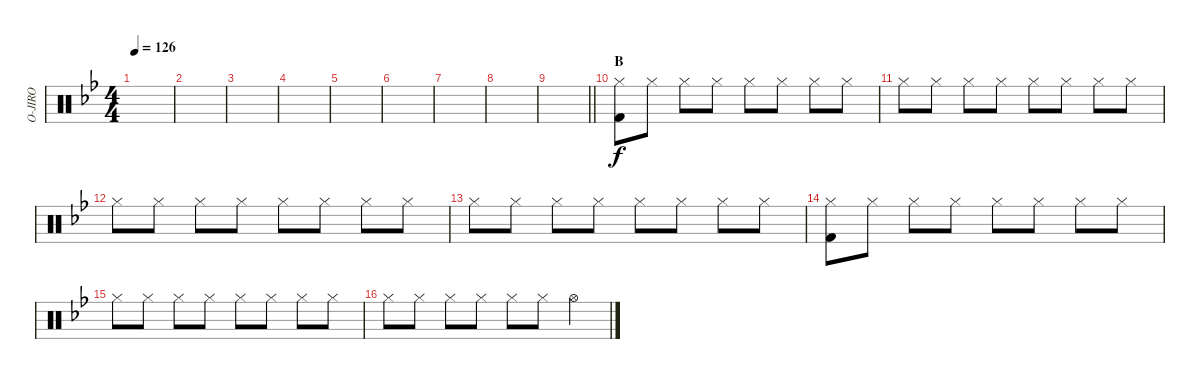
\track ("O-JIRO" "O-JIRO") {instrument percussion}
\staff {score}
\articulation defaults
\ts (4 4)
\tempo 126
\clef neutral
\ks bb
|
|
|
|
|
|
|
|
\barLineRight lightlight
|
\section ("" "B ")
("Hi-Hat (closed)" "Kick (hit) 2").8 "Hi-Hat (closed)".8 "Hi-Hat (closed)".8 "Hi-Hat (closed)".8 "Hi-Hat (closed)".8 "Hi-Hat (closed)".8 "Hi-Hat (closed)".8 "Hi-Hat (closed)".8 |
"Hi-Hat (closed)".8 "Hi-Hat (closed)".8 "Hi-Hat (closed)".8 "Hi-Hat (closed)".8 "Hi-Hat (closed)".8 "Hi-Hat (closed)".8 "Hi-Hat (closed)".8 "Hi-Hat (closed)".8 |
"Hi-Hat (closed)".8 "Hi-Hat (closed)".8 "Hi-Hat (closed)".8 "Hi-Hat (closed)".8 "Hi-Hat (closed)".8 "Hi-Hat (closed)".8 "Hi-Hat (closed)".8 "Hi-Hat (closed)".8 |
"Hi-Hat (closed)".8 "Hi-Hat (closed)".8 "Hi-Hat (closed)".8 "Hi-Hat (closed)".8 "Hi-Hat (closed)".8 "Hi-Hat (closed)".8 "Hi-Hat (closed)".8 "Hi-Hat (closed)".8 |
("Hi-Hat (closed)" "Kick (hit) 2").8 "Hi-Hat (closed)".8 "Hi-Hat (closed)".8 "Hi-Hat (closed)".8 "Hi-Hat (closed)".8 "Hi-Hat (closed)".8 "Hi-Hat (closed)".8 "Hi-Hat (closed)".8 |
"Hi-Hat (closed)".8 "Hi-Hat (closed)".8 "Hi-Hat (closed)".8 "Hi-Hat (closed)".8 "Hi-Hat (closed)".8 "Hi-Hat (closed)".8 "Hi-Hat (closed)".8 "Hi-Hat (closed)".8 |
"Hi-Hat (closed)".8 "Hi-Hat (closed)".8 "Hi-Hat (closed)".8 "Hi-Hat (closed)".8 "Hi-Hat (closed)".8 "Hi-Hat (closed)".8 "Hi-Hat (open)".4
